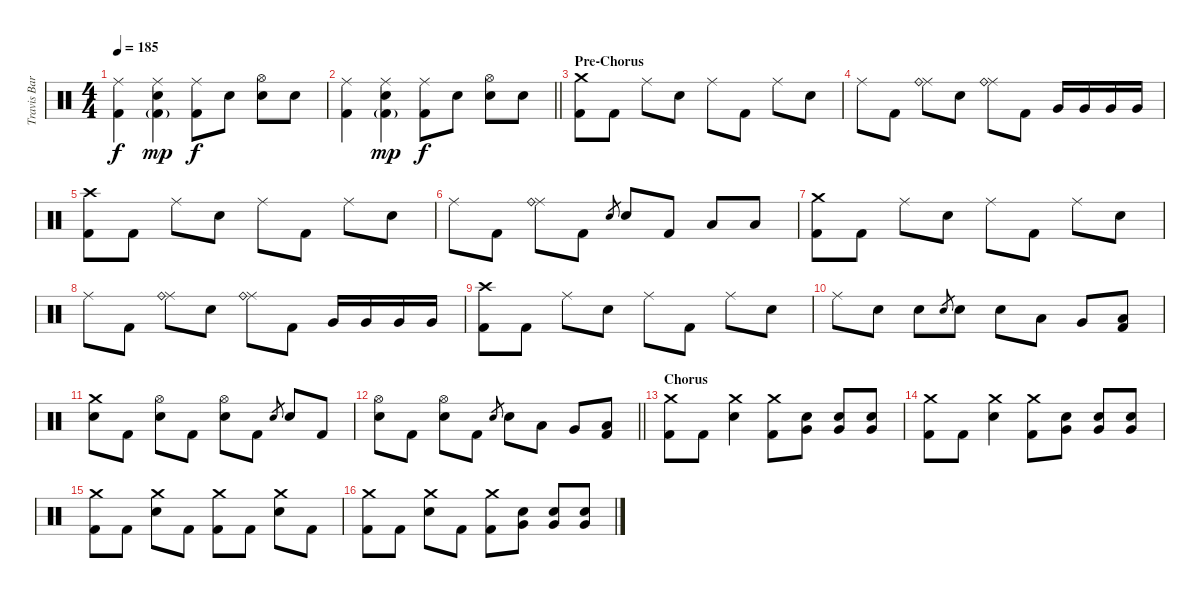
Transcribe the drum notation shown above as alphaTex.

\track ("Travis Barker - Drums" "Travis Bar") {instrument percussion}
\staff {score}
\articulation defaults
\ts (4 4)
\tempo 185
\clef neutral
\ks c
("Ride (middle)" "Kick (hit) 2").4{dy f} ("Ride (middle)" "Electric Snare (hit)" "Kick (hit) 2"{g}).4{dy mp} ("Ride (middle)" "Kick (hit) 2").8{dy f} "Electric Snare (hit)".8 ("Hi-Hat (open)" "Electric Snare (hit)").8 "Electric Snare (hit)".8 |
\barLineRight lightlight
("Ride (middle)" "Kick (hit) 2").4 ("Ride (middle)" "Electric Snare (hit)" "Kick (hit) 2"{g}).4{dy mp} ("Ride (middle)" "Kick (hit) 2").8{dy f} "Electric Snare (hit)".8 ("Hi-Hat (open)" "Electric Snare (hit)").8 "Electric Snare (hit)".8 |
\section ("" "Pre-Chorus")
("Crash medium (hit)" "Kick (hit) 2").8 "Kick (hit) 2".8 "Ride (middle)".8 "Electric Snare (hit)".8 "Ride (middle)".8 "Kick (hit) 2".8 "Ride (middle)".8 "Electric Snare (hit)".8 |
"Ride (middle)".8 "Kick (hit) 2".8 ("Ride (middle)" "Ride (bell)").8 "Electric Snare (hit)".8 ("Ride (middle)" "Ride (bell)").8 "Kick (hit) 2".8 "Very Low Tom (hit)".16 "Very Low Tom (hit)".16 "Very Low Tom (hit)".16 "Very Low Tom (hit)".16 |
("Crash high (hit)" "Kick (hit) 2").8 "Kick (hit) 2".8 "Ride (middle)".8 "Electric Snare (hit)".8 "Ride (middle)".8 "Kick (hit) 2".8 "Ride (middle)".8 "Electric Snare (hit)".8 |
"Ride (middle)".8 "Kick (hit) 2".8 ("Ride (middle)" "Ride (bell)").8 "Kick (hit) 2".8 "Electric Snare (hit)".8{gr} "Electric Snare (hit)".8 "Kick (hit) 2".8 "Low Tom (hit)".8 "Low Tom (hit)".8 |
("Crash medium (hit)" "Kick (hit) 2").8 "Kick (hit) 2".8 "Ride (middle)".8 "Electric Snare (hit)".8 "Ride (middle)".8 "Kick (hit) 2".8 "Ride (middle)".8 "Electric Snare (hit)".8 |
"Ride (middle)".8 "Kick (hit) 2".8 ("Ride (middle)" "Ride (bell)").8 "Electric Snare (hit)".8 ("Ride (middle)" "Ride (bell)").8 "Kick (hit) 2".8 "Very Low Tom (hit)".16 "Very Low Tom (hit)".16 "Very Low Tom (hit)".16 "Very Low Tom (hit)".16 |
("Crash high (hit)" "Kick (hit) 2").8 "Kick (hit) 2".8 "Ride (middle)".8 "Electric Snare (hit)".8 "Ride (middle)".8 "Kick (hit) 2".8 "Ride (middle)".8 "Electric Snare (hit)".8 |
"Ride (middle)".8 "Electric Snare (hit)".8 "Electric Snare (hit)".8 "Electric Snare (hit)".8{gr} "Electric Snare (hit)".8 "Electric Snare (hit)".8 "Low Tom (hit)".8 "Very Low Tom (hit)".8 ("Low Floor Tom (hit)" "Kick (hit) 2").8 |
("Crash medium (hit)" "Electric Snare (hit)").8 "Kick (hit) 2".8 ("Hi-Hat (open)" "Electric Snare (hit)").8 "Kick (hit) 2".8 ("Hi-Hat (open)" "Electric Snare (hit)").8 "Kick (hit) 2".8 "Electric Snare (hit)".8{gr} "Electric Snare (hit)".8 "Kick (hit) 2".8 |
\barLineRight lightlight
("Hi-Hat (open)" "Electric Snare (hit)").8 "Kick (hit) 2".8 ("Hi-Hat (open)" "Electric Snare (hit)").8 "Kick (hit) 2".8 "Electric Snare (hit)".8{gr} "Electric Snare (hit)".8 "Low Tom (hit)".8 "Very Low Tom (hit)".8 ("Low Floor Tom (hit)" "Kick (hit) 2").8 |
\section ("" "Chorus")
("Crash medium (hit)" "Kick (hit) 2").8 "Kick (hit) 2".8 ("Crash medium (hit)" "Electric Snare (hit)").4 ("Crash medium (hit)" "Kick (hit) 2").8 ("Very Low Tom (hit)" "Electric Snare (hit)").8 ("Very Low Tom (hit)" "Electric Snare (hit)").8 ("Very Low Tom (hit)" "Electric Snare (hit)").8 |
("Crash medium (hit)" "Kick (hit) 2").8 "Kick (hit) 2".8 ("Crash medium (hit)" "Electric Snare (hit)").4 ("Crash medium (hit)" "Kick (hit) 2").8 ("Very Low Tom (hit)" "Electric Snare (hit)").8 ("Very Low Tom (hit)" "Electric Snare (hit)").8 ("Very Low Tom (hit)" "Electric Snare (hit)").8 |
("Crash medium (hit)" "Kick (hit) 2").8 "Kick (hit) 2".8 ("Crash medium (hit)" "Electric Snare (hit)").8 "Kick (hit) 2".8 ("Crash medium (hit)" "Kick (hit) 2").8 "Kick (hit) 2".8 ("Crash medium (hit)" "Electric Snare (hit)").8 "Kick (hit) 2".8 |
("Crash medium (hit)" "Kick (hit) 2").8 "Kick (hit) 2".8 ("Crash medium (hit)" "Electric Snare (hit)").8 "Kick (hit) 2".8 ("Crash medium (hit)" "Kick (hit) 2").8 ("Very Low Tom (hit)" "Electric Snare (hit)").8 ("Very Low Tom (hit)" "Electric Snare (hit)").8 ("Very Low Tom (hit)" "Electric Snare (hit)").8
